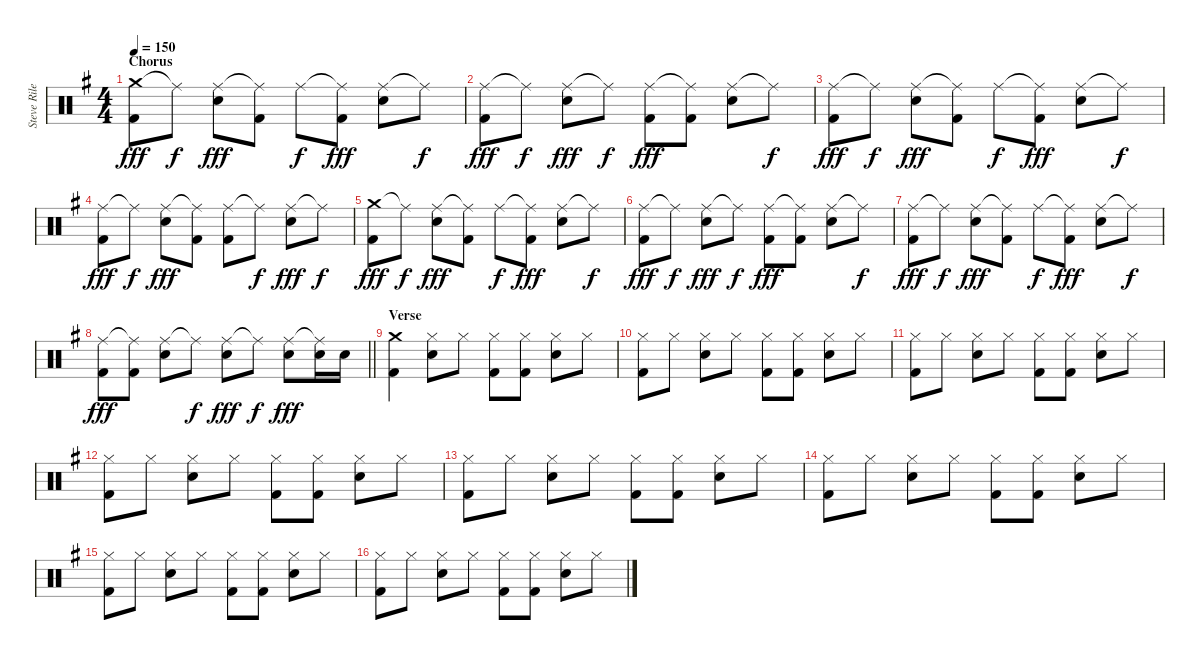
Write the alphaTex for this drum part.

\track ("Steve Riley - Drums" "Steve Rile") {instrument percussion}
\staff {score}
\articulation defaults
\ts (4 4)
\section ("" "Chorus")
\tempo 150
\clef neutral
\ks g
("Crash medium (hit)" "Kick (hit) 2").8{dy fff} "Ride (middle)"{t}.8{dy f} ("Ride (middle)" "Electric Snare (hit)").8{dy fff} ("Ride (middle)"{t} "Kick (hit) 2").8 "Ride (middle)".8{dy f} ("Ride (middle)"{t} "Kick (hit) 2").8{dy fff} ("Ride (middle)" "Electric Snare (hit)").8 "Ride (middle)"{t}.8{dy f} |
("Ride (middle)" "Kick (hit) 2").8{dy fff} "Ride (middle)"{t}.8{dy f} ("Ride (middle)" "Electric Snare (hit)").8{dy fff} "Ride (middle)"{t}.8{dy f} ("Ride (middle)" "Kick (hit) 2").8{dy fff} ("Ride (middle)"{t} "Kick (hit) 2").8 ("Ride (middle)" "Electric Snare (hit)").8 "Ride (middle)"{t}.8{dy f} |
("Ride (middle)" "Kick (hit) 2").8{dy fff} "Ride (middle)"{t}.8{dy f} ("Ride (middle)" "Electric Snare (hit)").8{dy fff} ("Ride (middle)"{t} "Kick (hit) 2").8 "Ride (middle)".8{dy f} ("Ride (middle)"{t} "Kick (hit) 2").8{dy fff} ("Ride (middle)" "Electric Snare (hit)").8 "Ride (middle)"{t}.8{dy f} |
("Ride (middle)" "Kick (hit) 2").8{dy fff} "Ride (middle)"{t}.8{dy f} ("Ride (middle)" "Electric Snare (hit)").8{dy fff} ("Ride (middle)"{t} "Kick (hit) 2").8 ("Ride (middle)" "Kick (hit) 2").8 "Ride (middle)"{t}.8{dy f} ("Ride (middle)" "Electric Snare (hit)").8{dy fff} "Ride (middle)"{t}.8{dy f} |
("Crash medium (hit)" "Kick (hit) 2").8{dy fff} "Ride (middle)"{t}.8{dy f} ("Ride (middle)" "Electric Snare (hit)").8{dy fff} ("Ride (middle)"{t} "Kick (hit) 2").8 "Ride (middle)".8{dy f} ("Ride (middle)"{t} "Kick (hit) 2").8{dy fff} ("Ride (middle)" "Electric Snare (hit)").8 "Ride (middle)"{t}.8{dy f} |
("Ride (middle)" "Kick (hit) 2").8{dy fff} "Ride (middle)"{t}.8{dy f} ("Ride (middle)" "Electric Snare (hit)").8{dy fff} "Ride (middle)"{t}.8{dy f} ("Ride (middle)" "Kick (hit) 2").8{dy fff} ("Ride (middle)"{t} "Kick (hit) 2").8 ("Ride (middle)" "Electric Snare (hit)").8 "Ride (middle)"{t}.8{dy f} |
("Ride (middle)" "Kick (hit) 2").8{dy fff} "Ride (middle)"{t}.8{dy f} ("Ride (middle)" "Electric Snare (hit)").8{dy fff} ("Ride (middle)"{t} "Kick (hit) 2").8 "Ride (middle)".8{dy f} ("Ride (middle)"{t} "Kick (hit) 2").8{dy fff} ("Ride (middle)" "Electric Snare (hit)").8 "Ride (middle)"{t}.8{dy f} |
\barLineRight lightlight
("Ride (middle)" "Kick (hit) 2").8{dy fff} ("Ride (middle)"{t} "Kick (hit) 2").8 ("Ride (middle)" "Electric Snare (hit)").8 "Ride (middle)"{t}.8{dy f} ("Ride (middle)" "Electric Snare (hit)").8{dy fff} "Ride (middle)"{t}.8{dy f} ("Ride (middle)" "Electric Snare (hit)").8{dy fff} ("Ride (middle)"{t} "Electric Snare (hit)").16 "Electric Snare (hit)".16 |
\section ("" "Verse")
("Crash medium (hit)" "Kick (hit) 2").4 ("Hi-Hat (closed)" "Electric Snare (hit)").8 "Hi-Hat (closed)".8 ("Hi-Hat (closed)" "Kick (hit) 2").8 ("Hi-Hat (closed)" "Kick (hit) 2").8 ("Hi-Hat (closed)" "Electric Snare (hit)").8 "Hi-Hat (closed)".8 |
("Hi-Hat (closed)" "Kick (hit) 2").8 "Hi-Hat (closed)".8 ("Hi-Hat (closed)" "Electric Snare (hit)").8 "Hi-Hat (closed)".8 ("Hi-Hat (closed)" "Kick (hit) 2").8 ("Hi-Hat (closed)" "Kick (hit) 2").8 ("Hi-Hat (closed)" "Electric Snare (hit)").8 "Hi-Hat (closed)".8 |
("Hi-Hat (closed)" "Kick (hit) 2").8 "Hi-Hat (closed)".8 ("Hi-Hat (closed)" "Electric Snare (hit)").8 "Hi-Hat (closed)".8 ("Hi-Hat (closed)" "Kick (hit) 2").8 ("Hi-Hat (closed)" "Kick (hit) 2").8 ("Hi-Hat (closed)" "Electric Snare (hit)").8 "Hi-Hat (closed)".8 |
("Hi-Hat (closed)" "Kick (hit) 2").8 "Hi-Hat (closed)".8 ("Hi-Hat (closed)" "Electric Snare (hit)").8 "Hi-Hat (closed)".8 ("Hi-Hat (closed)" "Kick (hit) 2").8 ("Hi-Hat (closed)" "Kick (hit) 2").8 ("Hi-Hat (closed)" "Electric Snare (hit)").8 "Hi-Hat (closed)".8 |
("Hi-Hat (closed)" "Kick (hit) 2").8 "Hi-Hat (closed)".8 ("Hi-Hat (closed)" "Electric Snare (hit)").8 "Hi-Hat (closed)".8 ("Hi-Hat (closed)" "Kick (hit) 2").8 ("Hi-Hat (closed)" "Kick (hit) 2").8 ("Hi-Hat (closed)" "Electric Snare (hit)").8 "Hi-Hat (closed)".8 |
("Hi-Hat (closed)" "Kick (hit) 2").8 "Hi-Hat (closed)".8 ("Hi-Hat (closed)" "Electric Snare (hit)").8 "Hi-Hat (closed)".8 ("Hi-Hat (closed)" "Kick (hit) 2").8 ("Hi-Hat (closed)" "Kick (hit) 2").8 ("Hi-Hat (closed)" "Electric Snare (hit)").8 "Hi-Hat (closed)".8 |
("Hi-Hat (closed)" "Kick (hit) 2").8 "Hi-Hat (closed)".8 ("Hi-Hat (closed)" "Electric Snare (hit)").8 "Hi-Hat (closed)".8 ("Hi-Hat (closed)" "Kick (hit) 2").8 ("Hi-Hat (closed)" "Kick (hit) 2").8 ("Hi-Hat (closed)" "Electric Snare (hit)").8 "Hi-Hat (closed)".8 |
("Hi-Hat (closed)" "Kick (hit) 2").8 "Hi-Hat (closed)".8 ("Hi-Hat (closed)" "Electric Snare (hit)").8 "Hi-Hat (closed)".8 ("Hi-Hat (closed)" "Kick (hit) 2").8 ("Hi-Hat (closed)" "Kick (hit) 2").8 ("Hi-Hat (closed)" "Electric Snare (hit)").8 "Hi-Hat (closed)".8
